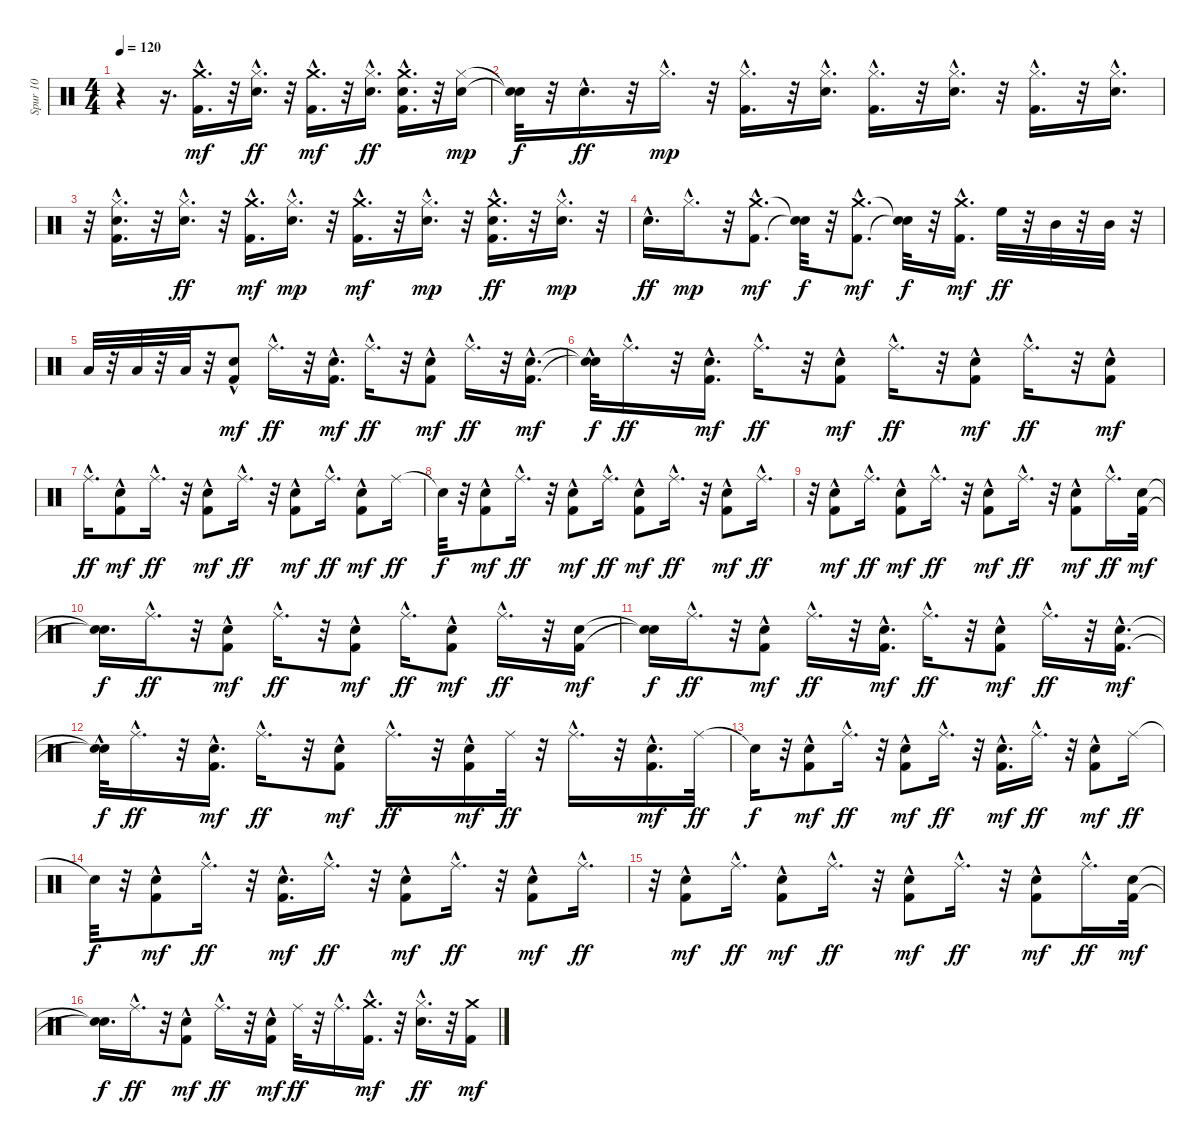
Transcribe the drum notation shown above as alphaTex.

\track ("Spur 10" "Spur 10") {instrument percussion}
\staff {score}
\articulation defaults
\ts (4 4)
\tempo 120
\clef neutral
\ks c
r.4{dy mf} r.16{d} ("Crash medium (hit)"{hac} "Kick (hit) 2"{hac}).16{d} r.32 ("Hi-Hat (closed)"{hac} "Snare (hit) 2"{hac}).16{d dy ff} r.32 ("Crash medium (hit)"{hac} "Kick (hit) 2"{hac}).16{d dy mf} r.32 ("Hi-Hat (closed)"{hac} "Snare (hit) 2"{hac}).16{d dy ff} ("Crash medium (hit)"{hac} "Kick (hit) 2"{hac} "Snare (hit) 2"{hac}).16{d} r.32 ("Snare (hit) 2" "Hi-Hat (closed)").16{dy mp} |
("Snare (hit)"{t} "Snare (hit)"{t}).32{dy f} r.32 "Snare (hit) 2"{hac}.16{d dy ff} r.32 "Hi-Hat (closed)"{hac}.16{d dy mp} r.32 ("Kick (hit) 2"{hac} "Hi-Hat (closed)"{hac}).16{d} r.32 ("Snare (hit) 2"{hac} "Hi-Hat (closed)"{hac}).16{d} ("Hi-Hat (closed)"{hac} "Kick (hit) 2"{hac}).16{d} r.32 ("Snare (hit) 2"{hac} "Hi-Hat (closed)"{hac}).16{d} r.32 ("Kick (hit) 2"{hac} "Hi-Hat (closed)"{hac}).16{d} r.32 ("Snare (hit) 2"{hac} "Hi-Hat (closed)"{hac}).16{d} |
r.32 ("Kick (hit) 2"{hac} "Snare (hit) 2"{hac} "Hi-Hat (closed)"{hac}).16{d} r.32 ("Hi-Hat (closed)"{hac} "Snare (hit) 2"{hac}).16{d dy ff} r.32 ("Kick (hit) 2"{hac} "Crash medium (hit)"{hac}).16{d dy mf} ("Snare (hit) 2"{hac} "Hi-Hat (closed)"{hac}).16{d dy mp} r.32 ("Crash medium (hit)"{hac} "Kick (hit) 2"{hac}).16{d dy mf} r.32 ("Snare (hit) 2"{hac} "Hi-Hat (closed)"{hac}).16{d dy mp} r.32 ("Crash medium (hit)"{hac} "Snare (hit) 2"{hac} "Kick (hit) 2").16{d dy ff} r.32 ("Snare (hit) 2"{hac} "Hi-Hat (closed)"{hac}).16{d dy mp} r.32 |
"Snare (hit) 2"{hac}.16{d dy ff} "Hi-Hat (closed)"{hac}.16{d dy mp} r.32 ("Crash medium (hit)"{hac} "Kick (hit) 2"{hac}).8{d dy mf} ("Snare (hit)"{t} "Snare (hit)"{t}).32{dy f} r.32 ("Crash medium (hit)"{hac} "Kick (hit) 2"{hac}).8{d dy mf} ("Snare (hit)"{t} "Snare (hit)"{t}).32{dy f} r.32 ("Crash medium (hit)"{hac} "Kick (hit) 2"{hac}).16{d dy mf} "High Floor Tom (hit)".32{dy ff} r.32 "Mid Tom (hit)".32 r.32 "Mid Tom (hit)".32 r.32 |
"Low Tom (hit)".32 r.32 "Low Tom (hit)".32 r.32 "Low Floor Tom (hit)".32 r.32 ("Kick (hit) 2"{hac} "Hand Clap (hit)"{hac}).8{dy mf} "Ride (middle)"{hac}.16{d dy ff} r.32 ("Hand Clap (hit)"{hac} "Kick (hit) 2"{hac}).16{d dy mf} "Ride (middle)"{hac}.16{d dy ff} r.32 ("Hand Clap (hit)"{hac} "Kick (hit) 2"{hac}).8{dy mf} "Ride (middle)"{hac}.16{d dy ff} r.32 ("Hand Clap (hit)"{hac} "Kick (hit) 2"{hac}).16{d dy mf} |
("Snare (hit)"{hac t} "Snare (hit)"{hac t}).32{dy f} "Ride (middle)"{hac}.16{d dy ff} r.32 ("Kick (hit) 2"{hac} "Hand Clap (hit)"{hac}).16{d dy mf} "Ride (middle)"{hac}.16{d dy ff} r.32 ("Hand Clap (hit)"{hac} "Kick (hit) 2"{hac}).8{dy mf} "Ride (middle)"{hac}.16{d dy ff} r.32 ("Hand Clap (hit)"{hac} "Kick (hit) 2"{hac}).8{dy mf} "Ride (middle)"{hac}.16{d dy ff} r.32 ("Hand Clap (hit)"{hac} "Kick (hit) 2"{hac}).8{dy mf} |
"Ride (middle)"{hac}.16{d dy ff} ("Kick (hit) 2"{hac} "Hand Clap (hit)"{hac}).8{dy mf} "Ride (middle)"{hac}.16{d dy ff} r.32 ("Hand Clap (hit)"{hac} "Kick (hit) 2"{hac}).8{dy mf} "Ride (middle)"{hac}.16{d dy ff} r.32 ("Hand Clap (hit)"{hac} "Kick (hit) 2"{hac}).8{dy mf} "Ride (middle)"{hac}.16{d dy ff} ("Hand Clap (hit)"{hac} "Kick (hit) 2"{hac}).8{dy mf} "Ride (middle)".16{dy ff} |
"Snare (hit)"{t}.32{dy f} r.32 ("Kick (hit) 2"{hac} "Hand Clap (hit)"{hac}).8{dy mf} "Ride (middle)"{hac}.16{d dy ff} r.32 ("Hand Clap (hit)"{hac} "Kick (hit) 2"{hac}).8{dy mf} "Ride (middle)"{hac}.16{d dy ff} ("Hand Clap (hit)"{hac} "Kick (hit) 2"{hac}).8{dy mf} "Ride (middle)"{hac}.16{d dy ff} r.32 ("Hand Clap (hit)"{hac} "Kick (hit) 2"{hac}).8{dy mf} "Ride (middle)"{hac}.16{d dy ff} |
r.32 ("Kick (hit) 2"{hac} "Hand Clap (hit)"{hac}).8{dy mf} "Ride (middle)"{hac}.16{d dy ff} ("Hand Clap (hit)"{hac} "Kick (hit) 2"{hac}).8{dy mf} "Ride (middle)"{hac}.16{d dy ff} r.32 ("Hand Clap (hit)"{hac} "Kick (hit) 2"{hac}).8{dy mf} "Ride (middle)"{hac}.16{d dy ff} r.32 ("Hand Clap (hit)"{hac} "Kick (hit) 2"{hac}).8{dy mf} "Ride (middle)"{hac}.16{d dy ff} ("Kick (hit) 2" "Hand Clap (hit)").32{dy mf} |
("Snare (hit)"{t} "Snare (hit)"{t}).16{d dy f} "Ride (middle)"{hac}.16{d dy ff} r.32 ("Hand Clap (hit)"{hac} "Kick (hit) 2"{hac}).8{dy mf} "Ride (middle)"{hac}.16{d dy ff} r.32 ("Hand Clap (hit)"{hac} "Kick (hit) 2"{hac}).8{dy mf} "Ride (middle)"{hac}.16{d dy ff} ("Hand Clap (hit)"{hac} "Kick (hit) 2"{hac}).8{dy mf} "Ride (middle)"{hac}.16{d dy ff} r.32 ("Kick (hit) 2" "Hand Clap (hit)").16{dy mf} |
("Snare (hit)"{t} "Snare (hit)"{t}).16{dy f} "Ride (middle)"{hac}.16{d dy ff} r.32 ("Hand Clap (hit)"{hac} "Kick (hit) 2"{hac}).8{dy mf} "Ride (middle)"{hac}.16{d dy ff} r.32 ("Hand Clap (hit)"{hac} "Kick (hit) 2"{hac}).16{d dy mf} "Ride (middle)"{hac}.16{d dy ff} r.32 ("Hand Clap (hit)"{hac} "Kick (hit) 2"{hac}).8{dy mf} "Ride (middle)"{hac}.16{d dy ff} r.32 ("Kick (hit) 2"{hac} "Hand Clap (hit)"{hac}).16{d dy mf} |
("Snare (hit)"{hac t} "Snare (hit)"{hac t}).32{dy f} "Ride (middle)"{hac}.16{d dy ff} r.32 ("Hand Clap (hit)"{hac} "Kick (hit) 2"{hac}).16{d dy mf} "Ride (middle)"{hac}.16{d dy ff} r.32 ("Hand Clap (hit)"{hac} "Kick (hit) 2"{hac}).8{dy mf} "Ride (middle)"{hac}.16{d dy ff} r.32 ("Hand Clap (hit)"{hac} "Kick (hit) 2"{hac}).16{dy mf} "Ride (middle)".32{dy ff} r.32 "Ride (middle)"{hac}.16{d} r.32 ("Kick (hit) 2"{hac} "Hand Clap (hit)"{hac}).16{d dy mf} "Ride (middle)".32{dy ff} |
"Snare (hit)"{t}.16{dy f} r.32 ("Hand Clap (hit)"{hac} "Kick (hit) 2"{hac}).8{dy mf} "Ride (middle)"{hac}.16{d dy ff} r.32 ("Hand Clap (hit)"{hac} "Kick (hit) 2"{hac}).8{dy mf} "Ride (middle)"{hac}.16{d dy ff} r.32 ("Hand Clap (hit)"{hac} "Kick (hit) 2"{hac}).16{d dy mf} "Ride (middle)"{hac}.16{d dy ff} r.32 ("Kick (hit) 2"{hac} "Hand Clap (hit)"{hac}).8{dy mf} "Ride (middle)".16{dy ff} |
"Snare (hit)"{t}.32{dy f} r.32 ("Hand Clap (hit)"{hac} "Kick (hit) 2"{hac}).8{dy mf} "Ride (middle)"{hac}.16{d dy ff} r.32 ("Hand Clap (hit)"{hac} "Kick (hit) 2"{hac}).16{d dy mf} "Ride (middle)"{hac}.16{d dy ff} r.32 ("Hand Clap (hit)"{hac} "Kick (hit) 2"{hac}).8{dy mf} "Ride (middle)"{hac}.16{d dy ff} r.32 ("Kick (hit) 2"{hac} "Hand Clap (hit)"{hac}).8{dy mf} "Ride (middle)"{hac}.16{d dy ff} |
r.32 ("Hand Clap (hit)"{hac} "Kick (hit) 2"{hac}).8{dy mf} "Ride (middle)"{hac}.16{d dy ff} ("Hand Clap (hit)"{hac} "Kick (hit) 2"{hac}).8{dy mf} "Ride (middle)"{hac}.16{d dy ff} r.32 ("Hand Clap (hit)"{hac} "Kick (hit) 2"{hac}).8{dy mf} "Ride (middle)"{hac}.16{d dy ff} r.32 ("Kick (hit) 2"{hac} "Hand Clap (hit)"{hac}).8{dy mf} "Ride (middle)"{hac}.16{d dy ff} ("Hand Clap (hit)" "Kick (hit) 2").32{dy mf} |
("Snare (hit)"{t} "Snare (hit)"{t}).16{d dy f} "Ride (middle)"{hac}.16{d dy ff} r.32 ("Hand Clap (hit)"{hac} "Kick (hit) 2"{hac}).8{dy mf} "Ride (middle)"{hac}.16{d dy ff} r.32 ("Hand Clap (hit)"{hac} "Kick (hit) 2"{hac}).16{dy mf} "Ride (middle)".32{dy ff} r.32 "Ride (middle)"{hac}.16{d} ("Crash medium (hit)"{hac} "Kick (hit) 2"{hac}).16{d dy mf} r.32 ("Hi-Hat (closed)"{hac} "Snare (hit) 2"{hac}).16{d dy ff} r.32 ("Crash medium (hit)" "Kick (hit) 2").16{dy mf}
